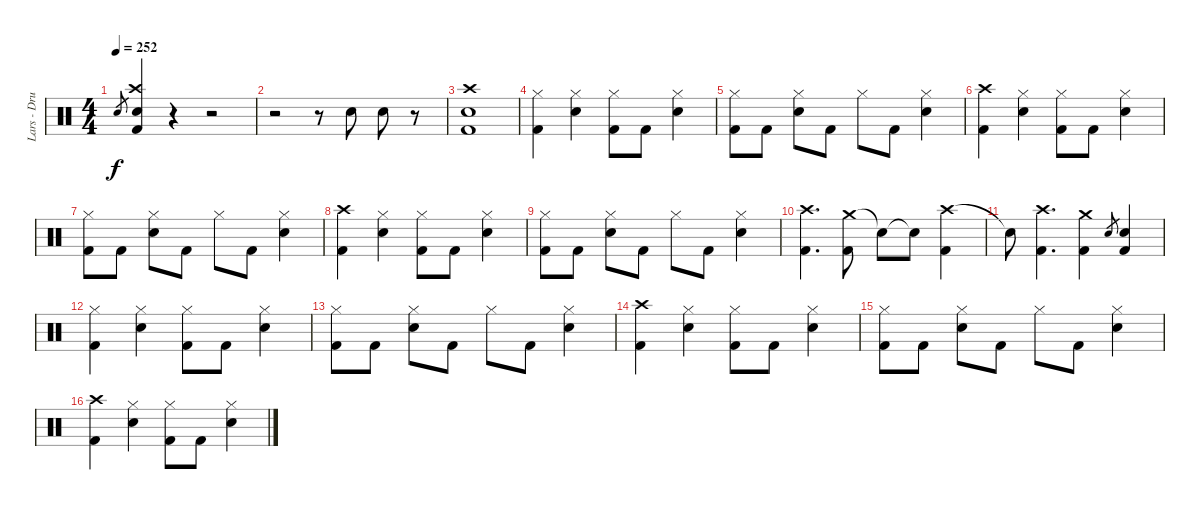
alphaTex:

\track ("Lars - Drums" "Lars - Dru") {instrument percussion}
\staff {score}
\articulation defaults
\ts (4 4)
\tempo 252
\clef neutral
\ks c "Electric Snare (hit)".8{gr dy f}
("Crash high (hit)" "Electric Snare (hit)" "Kick (hit) 2").4 r.4 r.2 |
r.2 r.8 "Electric Snare (hit)".8 "Electric Snare (hit)".8 r.8 |
("Crash high (hit)" "Electric Snare (hit)" "Kick (hit) 2").1 |
("Hi-Hat (closed)" "Kick (hit) 2").4 ("Hi-Hat (closed)" "Electric Snare (hit)").4 ("Hi-Hat (closed)" "Kick (hit) 2").8 "Kick (hit) 2".8 ("Hi-Hat (closed)" "Electric Snare (hit)").4 |
("Hi-Hat (closed)" "Kick (hit) 2").8 "Kick (hit) 2".8 ("Hi-Hat (closed)" "Electric Snare (hit)").8 "Kick (hit) 2".8 "Hi-Hat (closed)".8 "Kick (hit) 2".8 ("Hi-Hat (closed)" "Electric Snare (hit)").4 |
("Crash high (hit)" "Kick (hit) 2").4 ("Hi-Hat (closed)" "Electric Snare (hit)").4 ("Hi-Hat (closed)" "Kick (hit) 2").8 "Kick (hit) 2".8 ("Hi-Hat (closed)" "Electric Snare (hit)").4 |
("Hi-Hat (closed)" "Kick (hit) 2").8 "Kick (hit) 2".8 ("Hi-Hat (closed)" "Electric Snare (hit)").8 "Kick (hit) 2".8 "Hi-Hat (closed)".8 "Kick (hit) 2".8 ("Hi-Hat (closed)" "Electric Snare (hit)").4 |
("Crash high (hit)" "Kick (hit) 2").4 ("Hi-Hat (closed)" "Electric Snare (hit)").4 ("Hi-Hat (closed)" "Kick (hit) 2").8 "Kick (hit) 2".8 ("Hi-Hat (closed)" "Electric Snare (hit)").4 |
("Hi-Hat (closed)" "Kick (hit) 2").8 "Kick (hit) 2".8 ("Hi-Hat (closed)" "Electric Snare (hit)").8 "Kick (hit) 2".8 "Hi-Hat (closed)".8 "Kick (hit) 2".8 ("Hi-Hat (closed)" "Electric Snare (hit)").4 |
("Crash high (hit)" "Kick (hit) 2").4{d} ("Crash medium (hit)" "Kick (hit) 2").8 "Snare (hit)"{t}.8 "Snare (hit)"{t}.8 ("Crash high (hit)" "Kick (hit) 2").4 |
"Snare (hit)"{t}.8 ("Crash high (hit)" "Kick (hit) 2").4{d} ("Crash medium (hit)" "Kick (hit) 2").4 "Electric Snare (hit)".8{gr} ("Electric Snare (hit)" "Kick (hit) 2").4 |
("Hi-Hat (closed)" "Kick (hit) 2").4 ("Hi-Hat (closed)" "Electric Snare (hit)").4 ("Hi-Hat (closed)" "Kick (hit) 2").8 "Kick (hit) 2".8 ("Hi-Hat (closed)" "Electric Snare (hit)").4 |
("Hi-Hat (closed)" "Kick (hit) 2").8 "Kick (hit) 2".8 ("Hi-Hat (closed)" "Electric Snare (hit)").8 "Kick (hit) 2".8 "Hi-Hat (closed)".8 "Kick (hit) 2".8 ("Hi-Hat (closed)" "Electric Snare (hit)").4 |
("Crash high (hit)" "Kick (hit) 2").4 ("Hi-Hat (closed)" "Electric Snare (hit)").4 ("Hi-Hat (closed)" "Kick (hit) 2").8 "Kick (hit) 2".8 ("Hi-Hat (closed)" "Electric Snare (hit)").4 |
("Hi-Hat (closed)" "Kick (hit) 2").8 "Kick (hit) 2".8 ("Hi-Hat (closed)" "Electric Snare (hit)").8 "Kick (hit) 2".8 "Hi-Hat (closed)".8 "Kick (hit) 2".8 ("Hi-Hat (closed)" "Electric Snare (hit)").4 |
("Crash high (hit)" "Kick (hit) 2").4 ("Hi-Hat (closed)" "Electric Snare (hit)").4 ("Hi-Hat (closed)" "Kick (hit) 2").8 "Kick (hit) 2".8 ("Hi-Hat (closed)" "Electric Snare (hit)").4
